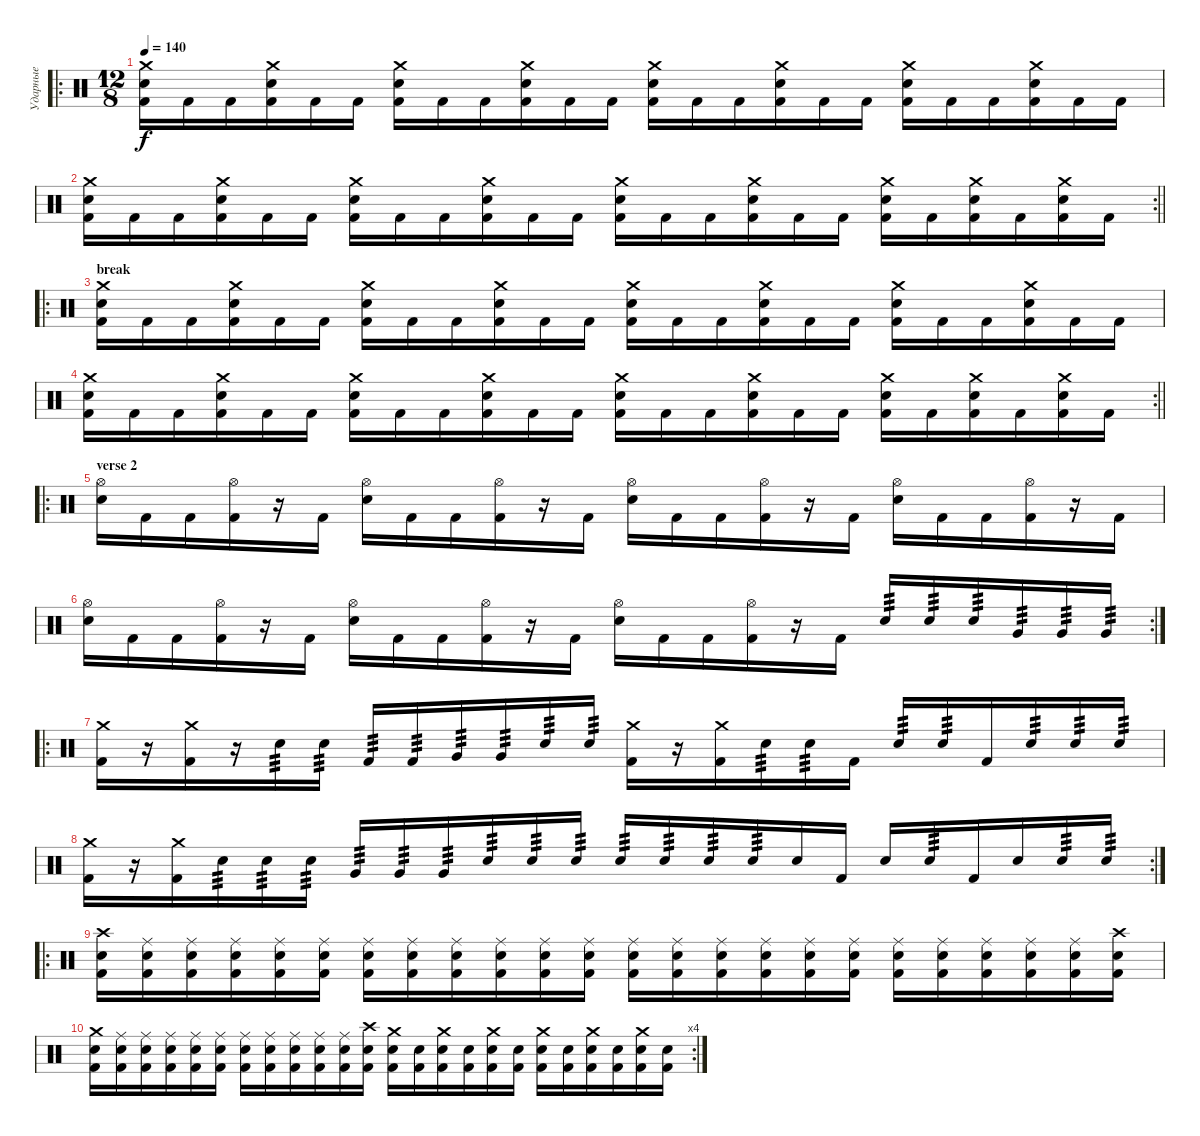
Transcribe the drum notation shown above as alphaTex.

\track ("Ударные" "Ударные") {instrument percussion}
\staff {score}
\articulation defaults
\ro
\ts (12 8)
\tempo 140
\clef neutral
\ks c
("Crash medium (hit)" "Electric Snare (hit)" "Kick (hit) 2").16{dy f} "Kick (hit) 2".16 "Kick (hit) 2".16 ("Crash medium (hit)" "Electric Snare (hit)" "Kick (hit) 2").16 "Kick (hit) 2".16 "Kick (hit) 2".16 ("Crash medium (hit)" "Electric Snare (hit)" "Kick (hit) 2").16 "Kick (hit) 2".16 "Kick (hit) 2".16 ("Crash medium (hit)" "Electric Snare (hit)" "Kick (hit) 2").16 "Kick (hit) 2".16 "Kick (hit) 2".16 ("Crash medium (hit)" "Electric Snare (hit)" "Kick (hit) 2").16 "Kick (hit) 2".16 "Kick (hit) 2".16 ("Crash medium (hit)" "Electric Snare (hit)" "Kick (hit) 2").16 "Kick (hit) 2".16 "Kick (hit) 2".16 ("Crash medium (hit)" "Electric Snare (hit)" "Kick (hit) 2").16 "Kick (hit) 2".16 "Kick (hit) 2".16 ("Crash medium (hit)" "Electric Snare (hit)" "Kick (hit) 2").16 "Kick (hit) 2".16 "Kick (hit) 2".16 |
\rc 2
\barLineRight lightlight
("Crash medium (hit)" "Electric Snare (hit)" "Kick (hit) 2").16 "Kick (hit) 2".16 "Kick (hit) 2".16 ("Crash medium (hit)" "Electric Snare (hit)" "Kick (hit) 2").16 "Kick (hit) 2".16 "Kick (hit) 2".16 ("Crash medium (hit)" "Electric Snare (hit)" "Kick (hit) 2").16 "Kick (hit) 2".16 "Kick (hit) 2".16 ("Crash medium (hit)" "Electric Snare (hit)" "Kick (hit) 2").16 "Kick (hit) 2".16 "Kick (hit) 2".16 ("Crash medium (hit)" "Electric Snare (hit)" "Kick (hit) 2").16 "Kick (hit) 2".16 "Kick (hit) 2".16 ("Crash medium (hit)" "Electric Snare (hit)" "Kick (hit) 2").16 "Kick (hit) 2".16 "Kick (hit) 2".16 ("Crash medium (hit)" "Electric Snare (hit)" "Kick (hit) 2").16 "Kick (hit) 2".16 ("Crash medium (hit)" "Electric Snare (hit)" "Kick (hit) 2").16 "Kick (hit) 2".16 ("Crash medium (hit)" "Electric Snare (hit)" "Kick (hit) 2").16 "Kick (hit) 2".16 |
\ro
\section ("" "break")
("Crash medium (hit)" "Electric Snare (hit)" "Kick (hit) 2").16 "Kick (hit) 2".16 "Kick (hit) 2".16 ("Crash medium (hit)" "Electric Snare (hit)" "Kick (hit) 2").16 "Kick (hit) 2".16 "Kick (hit) 2".16 ("Crash medium (hit)" "Electric Snare (hit)" "Kick (hit) 2").16 "Kick (hit) 2".16 "Kick (hit) 2".16 ("Crash medium (hit)" "Electric Snare (hit)" "Kick (hit) 2").16 "Kick (hit) 2".16 "Kick (hit) 2".16 ("Crash medium (hit)" "Electric Snare (hit)" "Kick (hit) 2").16 "Kick (hit) 2".16 "Kick (hit) 2".16 ("Crash medium (hit)" "Electric Snare (hit)" "Kick (hit) 2").16 "Kick (hit) 2".16 "Kick (hit) 2".16 ("Crash medium (hit)" "Electric Snare (hit)" "Kick (hit) 2").16 "Kick (hit) 2".16 "Kick (hit) 2".16 ("Crash medium (hit)" "Electric Snare (hit)" "Kick (hit) 2").16 "Kick (hit) 2".16 "Kick (hit) 2".16 |
\rc 2
\barLineRight lightlight
("Crash medium (hit)" "Electric Snare (hit)" "Kick (hit) 2").16 "Kick (hit) 2".16 "Kick (hit) 2".16 ("Crash medium (hit)" "Electric Snare (hit)" "Kick (hit) 2").16 "Kick (hit) 2".16 "Kick (hit) 2".16 ("Crash medium (hit)" "Electric Snare (hit)" "Kick (hit) 2").16 "Kick (hit) 2".16 "Kick (hit) 2".16 ("Crash medium (hit)" "Electric Snare (hit)" "Kick (hit) 2").16 "Kick (hit) 2".16 "Kick (hit) 2".16 ("Crash medium (hit)" "Electric Snare (hit)" "Kick (hit) 2").16 "Kick (hit) 2".16 "Kick (hit) 2".16 ("Crash medium (hit)" "Electric Snare (hit)" "Kick (hit) 2").16 "Kick (hit) 2".16 "Kick (hit) 2".16 ("Crash medium (hit)" "Electric Snare (hit)" "Kick (hit) 2").16 "Kick (hit) 2".16 ("Crash medium (hit)" "Electric Snare (hit)" "Kick (hit) 2").16 "Kick (hit) 2".16 ("Crash medium (hit)" "Electric Snare (hit)" "Kick (hit) 2").16 "Kick (hit) 2".16 |
\ro
\section ("" "verse 2")
("Hi-Hat (open)" "Electric Snare (hit)").16 "Kick (hit) 2".16 "Kick (hit) 2".16 ("Hi-Hat (open)" "Kick (hit) 2").16 r.16 "Kick (hit) 2".16 ("Hi-Hat (open)" "Electric Snare (hit)").16 "Kick (hit) 2".16 "Kick (hit) 2".16 ("Hi-Hat (open)" "Kick (hit) 2").16 r.16 "Kick (hit) 2".16 ("Hi-Hat (open)" "Electric Snare (hit)").16 "Kick (hit) 2".16 "Kick (hit) 2".16 ("Hi-Hat (open)" "Kick (hit) 2").16 r.16 "Kick (hit) 2".16 ("Hi-Hat (open)" "Electric Snare (hit)").16 "Kick (hit) 2".16 "Kick (hit) 2".16 ("Hi-Hat (open)" "Kick (hit) 2").16 r.16 "Kick (hit) 2".16 |
\rc 2
("Hi-Hat (open)" "Electric Snare (hit)").16 "Kick (hit) 2".16 "Kick (hit) 2".16 ("Hi-Hat (open)" "Kick (hit) 2").16 r.16 "Kick (hit) 2".16 ("Hi-Hat (open)" "Electric Snare (hit)").16 "Kick (hit) 2".16 "Kick (hit) 2".16 ("Hi-Hat (open)" "Kick (hit) 2").16 r.16 "Kick (hit) 2".16 ("Hi-Hat (open)" "Electric Snare (hit)").16 "Kick (hit) 2".16 "Kick (hit) 2".16 ("Hi-Hat (open)" "Kick (hit) 2").16 r.16 "Kick (hit) 2".16 "Electric Snare (hit)".16{tp 3} "Electric Snare (hit)".16{tp 3} "Electric Snare (hit)".16{tp 3} "Very Low Tom (hit)".16{tp 3} "Very Low Tom (hit)".16{tp 3} "Very Low Tom (hit)".16{tp 3} |
\ro
("Crash medium (hit)" "Kick (hit) 2").16 r.16 ("Crash medium (hit)" "Kick (hit) 2").16 r.16 "Electric Snare (hit)".16{tp 3} "Electric Snare (hit)".16{tp 3} "Kick (hit) 2".16{tp 3} "Kick (hit) 2".16{tp 3} "Very Low Tom (hit)".16{tp 3} "Very Low Tom (hit)".16{tp 3} "Electric Snare (hit)".16{tp 3} "Electric Snare (hit)".16{tp 3} ("Crash medium (hit)" "Kick (hit) 2").16 r.16 ("Crash medium (hit)" "Kick (hit) 2").16 "Electric Snare (hit)".16{tp 3} "Electric Snare (hit)".16{tp 3} "Kick (hit) 2".16 "Electric Snare (hit)".16{tp 3} "Electric Snare (hit)".16{tp 3} "Kick (hit) 2".16 "Electric Snare (hit)".16{tp 3} "Electric Snare (hit)".16{tp 3} "Electric Snare (hit)".16{tp 3} |
\rc 2
("Crash medium (hit)" "Kick (hit) 2").16 r.16 ("Crash medium (hit)" "Kick (hit) 2").16 "Electric Snare (hit)".16{tp 3} "Electric Snare (hit)".16{tp 3} "Electric Snare (hit)".16{tp 3} "Very Low Tom (hit)".16{tp 3} "Very Low Tom (hit)".16{tp 3} "Very Low Tom (hit)".16{tp 3} "Electric Snare (hit)".16{tp 3} "Electric Snare (hit)".16{tp 3} "Electric Snare (hit)".16{tp 3} "Electric Snare (hit)".16{tp 3} "Electric Snare (hit)".16{tp 3} "Electric Snare (hit)".16{tp 3} "Electric Snare (hit)".16{tp 3} "Electric Snare (hit)".16 "Kick (hit) 2".16 "Electric Snare (hit)".16 "Electric Snare (hit)".16{tp 3} "Kick (hit) 2".16 "Electric Snare (hit)".16 "Electric Snare (hit)".16{tp 3} "Electric Snare (hit)".16{tp 3} |
\ro
("Crash high (hit)" "Electric Snare (hit)" "Kick (hit) 2").16 ("Ride (middle)" "Electric Snare (hit)" "Kick (hit) 2").16 ("Ride (middle)" "Electric Snare (hit)" "Kick (hit) 2").16 ("Ride (middle)" "Electric Snare (hit)" "Kick (hit) 2").16 ("Ride (middle)" "Electric Snare (hit)" "Kick (hit) 2").16 ("Ride (middle)" "Electric Snare (hit)" "Kick (hit) 2").16 ("Ride (middle)" "Electric Snare (hit)" "Kick (hit) 2").16 ("Ride (middle)" "Electric Snare (hit)" "Kick (hit) 2").16 ("Ride (middle)" "Electric Snare (hit)" "Kick (hit) 2").16 ("Ride (middle)" "Electric Snare (hit)" "Kick (hit) 2").16 ("Ride (middle)" "Electric Snare (hit)" "Kick (hit) 2").16 ("Ride (middle)" "Electric Snare (hit)" "Kick (hit) 2").16 ("Ride (middle)" "Electric Snare (hit)" "Kick (hit) 2").16 ("Ride (middle)" "Electric Snare (hit)" "Kick (hit) 2").16 ("Ride (middle)" "Electric Snare (hit)" "Kick (hit) 2").16 ("Ride (middle)" "Electric Snare (hit)" "Kick (hit) 2").16 ("Ride (middle)" "Electric Snare (hit)" "Kick (hit) 2").16 ("Ride (middle)" "Electric Snare (hit)" "Kick (hit) 2").16 ("Ride (middle)" "Electric Snare (hit)" "Kick (hit) 2").16 ("Ride (middle)" "Electric Snare (hit)" "Kick (hit) 2").16 ("Ride (middle)" "Electric Snare (hit)" "Kick (hit) 2").16 ("Ride (middle)" "Electric Snare (hit)" "Kick (hit) 2").16 ("Ride (middle)" "Electric Snare (hit)" "Kick (hit) 2").16 ("Crash high (hit)" "Electric Snare (hit)" "Kick (hit) 2").16 |
\rc 4
("Crash medium (hit)" "Electric Snare (hit)" "Kick (hit) 2").16 ("Ride (middle)" "Electric Snare (hit)" "Kick (hit) 2").16 ("Ride (middle)" "Electric Snare (hit)" "Kick (hit) 2").16 ("Ride (middle)" "Electric Snare (hit)" "Kick (hit) 2").16 ("Ride (middle)" "Electric Snare (hit)" "Kick (hit) 2").16 ("Ride (middle)" "Electric Snare (hit)" "Kick (hit) 2").16 ("Ride (middle)" "Electric Snare (hit)" "Kick (hit) 2").16 ("Ride (middle)" "Electric Snare (hit)" "Kick (hit) 2").16 ("Ride (middle)" "Electric Snare (hit)" "Kick (hit) 2").16 ("Ride (middle)" "Electric Snare (hit)" "Kick (hit) 2").16 ("Ride (middle)" "Electric Snare (hit)" "Kick (hit) 2").16 ("Crash high (hit)" "Electric Snare (hit)" "Kick (hit) 2").16 ("Crash medium (hit)" "Electric Snare (hit)" "Kick (hit) 2").16 ("Electric Snare (hit)" "Kick (hit) 2").16 ("Crash medium (hit)" "Electric Snare (hit)" "Kick (hit) 2").16 ("Electric Snare (hit)" "Kick (hit) 2").16 ("Crash medium (hit)" "Electric Snare (hit)" "Kick (hit) 2").16 ("Electric Snare (hit)" "Kick (hit) 2").16 ("Crash medium (hit)" "Electric Snare (hit)" "Kick (hit) 2").16 ("Electric Snare (hit)" "Kick (hit) 2").16 ("Crash medium (hit)" "Electric Snare (hit)" "Kick (hit) 2").16 ("Electric Snare (hit)" "Kick (hit) 2").16 ("Crash medium (hit)" "Electric Snare (hit)" "Kick (hit) 2").16 ("Electric Snare (hit)" "Kick (hit) 2").16
